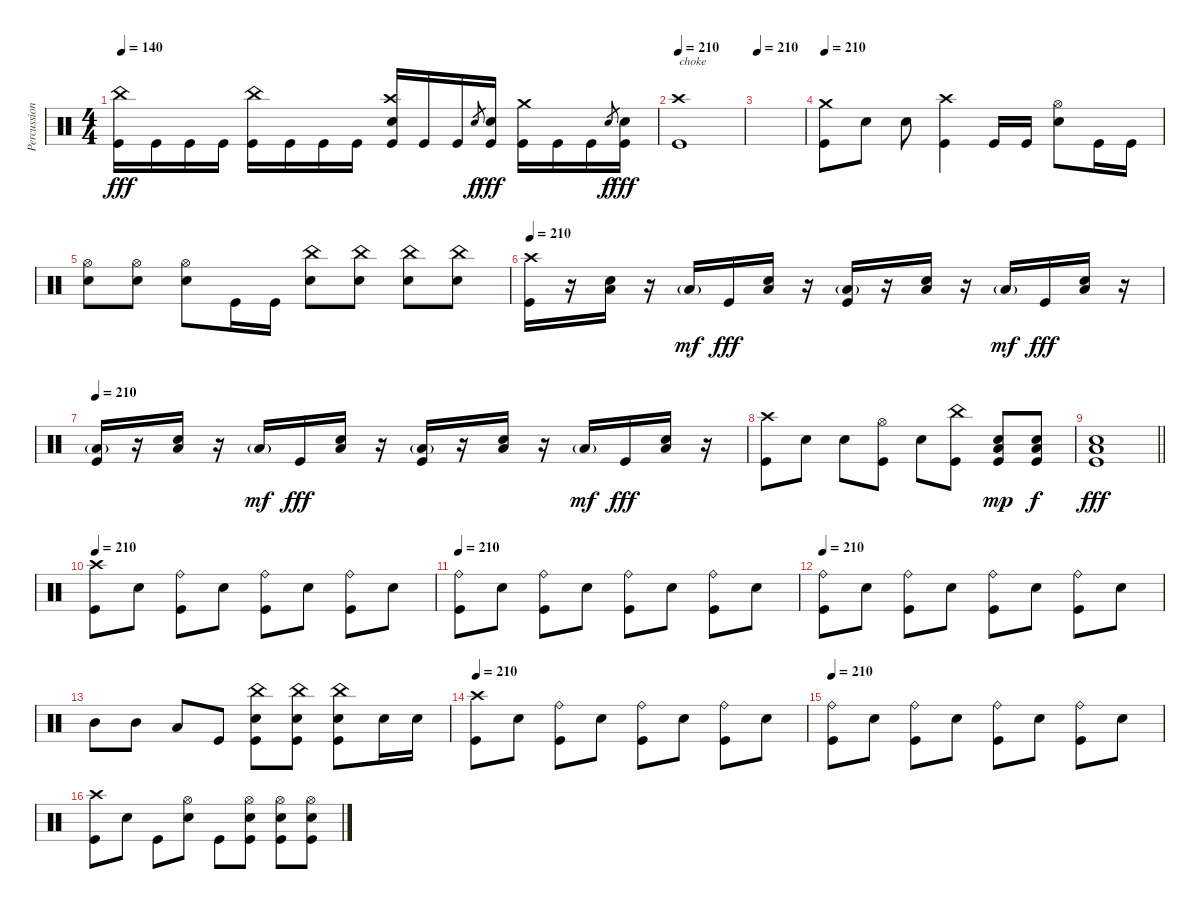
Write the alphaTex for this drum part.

\track ("Percussion" "Percussion") {instrument percussion}
\staff {score}
\articulation defaults
\ts (4 4)
\tempo 140
\clef neutral
\ks c
("China (hit)" "Kick (hit)").16{dy fff} "Kick (hit)".16 "Kick (hit)".16 "Kick (hit)".16 ("China (hit)" "Kick (hit)").16 "Kick (hit)".16 "Kick (hit)".16 "Kick (hit)".16 ("Crash high (hit)" "Snare (hit) 2" "Kick (hit)").16 "Kick (hit)".16 "Kick (hit)".16 "Snare (hit) 2".8{gr dy f} ("Snare (hit) 2" "Kick (hit)").16{dy fff} ("Crash medium (hit)" "Kick (hit)").16 "Kick (hit)".16 "Kick (hit)".16 "Snare (hit) 2".8{gr dy f} ("Snare (hit) 2" "Kick (hit)").16{dy fff} |
\tempo 210
("Crash high (hit)" "Kick (hit)").1{txt "choke"} |
\tempo 210
|
\tempo 210
("Crash medium (hit)" "Kick (hit)").8 "Snare (hit) 2".8 "Snare (hit) 2".8 ("Crash high (hit)" "Kick (hit)").4 "Kick (hit)".16 "Kick (hit)".16 ("Hi-Hat (open)" "Snare (hit) 2").8 "Kick (hit)".16 "Kick (hit)".16 |
("Hi-Hat (open)" "Snare (hit) 2").8 ("Hi-Hat (open)" "Snare (hit) 2").8 ("Hi-Hat (open)" "Snare (hit) 2").8 "Kick (hit)".16 "Kick (hit)".16 ("China (hit)" "Snare (hit) 2").8 ("China (hit)" "Snare (hit) 2").8 ("China (hit)" "Snare (hit) 2").8 ("China (hit)" "Snare (hit) 2").8 |
\tempo 210
("Crash high (hit)" "Kick (hit)").16 r.16 ("Low Floor Tom (hit)" "Snare (hit) 2").16 r.16 "Low Floor Tom (hit)"{g}.16{dy mf} "Kick (hit)".16{dy fff} ("Low Floor Tom (hit)" "Snare (hit) 2").16 r.16 ("Low Floor Tom (hit)"{g} "Kick (hit)").16 r.16 ("Low Floor Tom (hit)" "Snare (hit) 2").16 r.16 "Low Floor Tom (hit)"{g}.16{dy mf} "Kick (hit)".16{dy fff} ("Low Floor Tom (hit)" "Snare (hit) 2").16 r.16 |
\tempo 210
("Low Floor Tom (hit)"{g} "Kick (hit)").16 r.16 ("Low Floor Tom (hit)" "Snare (hit) 2").16 r.16 "Low Floor Tom (hit)"{g}.16{dy mf} "Kick (hit)".16{dy fff} ("Low Floor Tom (hit)" "Snare (hit) 2").16 r.16 ("Low Floor Tom (hit)"{g} "Kick (hit)").16 r.16 ("Low Floor Tom (hit)" "Snare (hit) 2").16 r.16 "Low Floor Tom (hit)"{g}.16{dy mf} "Kick (hit)".16{dy fff} ("Low Floor Tom (hit)" "Snare (hit) 2").16 r.16 |
("Crash high (hit)" "Kick (hit)").8 "Snare (hit) 2".8 "Snare (hit) 2".8 ("Hi-Hat (open)" "Kick (hit)").8 "Snare (hit) 2".8 ("China (hit)" "Kick (hit)").8 ("Low Floor Tom (hit)" "Snare (hit) 2" "Kick (hit)").8{dy mp} ("Low Floor Tom (hit)" "Snare (hit) 2" "Kick (hit)").8{dy f} |
\barLineRight lightlight
("Low Floor Tom (hit)" "Snare (hit) 2" "Kick (hit)").1{dy fff} |
\section ("" "")
\tempo 210
("Crash high (hit)" "Kick (hit)").8 "Snare (hit) 2".8 ("Ride (bell)" "Kick (hit)").8 "Snare (hit) 2".8 ("Ride (bell)" "Kick (hit)").8 "Snare (hit) 2".8 ("Ride (bell)" "Kick (hit)").8 "Snare (hit) 2".8 |
\tempo 210
("Ride (bell)" "Kick (hit)").8 "Snare (hit) 2".8 ("Ride (bell)" "Kick (hit)").8 "Snare (hit) 2".8 ("Ride (bell)" "Kick (hit)").8 "Snare (hit) 2".8 ("Ride (bell)" "Kick (hit)").8 "Snare (hit) 2".8 |
\tempo 210
("Ride (bell)" "Kick (hit)").8 "Snare (hit) 2".8 ("Ride (bell)" "Kick (hit)").8 "Snare (hit) 2".8 ("Ride (bell)" "Kick (hit)").8 "Snare (hit) 2".8 ("Ride (bell)" "Kick (hit)").8 "Snare (hit) 2".8 |
"Mid Tom (hit)".8 "Mid Tom (hit)".8 "Low Floor Tom (hit)".8 "Kick (hit)".8 ("China (hit)" "Snare (hit) 2" "Kick (hit)").8 ("China (hit)" "Snare (hit) 2" "Kick (hit)").8 ("China (hit)" "Snare (hit) 2" "Kick (hit)").8 "Snare (hit) 2".16 "Snare (hit) 2".16 |
\tempo 210
("Crash high (hit)" "Kick (hit)").8 "Snare (hit) 2".8 ("Ride (bell)" "Kick (hit)").8 "Snare (hit) 2".8 ("Ride (bell)" "Kick (hit)").8 "Snare (hit) 2".8 ("Ride (bell)" "Kick (hit)").8 "Snare (hit) 2".8 |
\tempo 210
("Ride (bell)" "Kick (hit)").8 "Snare (hit) 2".8 ("Ride (bell)" "Kick (hit)").8 "Snare (hit) 2".8 ("Ride (bell)" "Kick (hit)").8 "Snare (hit) 2".8 ("Ride (bell)" "Kick (hit)").8 "Snare (hit) 2".8 |
("Crash high (hit)" "Kick (hit)").8 "Snare (hit) 2".8 "Kick (hit)".8 ("Hi-Hat (open)" "Snare (hit) 2").8 "Kick (hit)".8 ("Hi-Hat (open)" "Snare (hit) 2" "Kick (hit)").8 ("Hi-Hat (open)" "Snare (hit) 2" "Kick (hit)").8 ("Hi-Hat (open)" "Snare (hit) 2" "Kick (hit)").8
